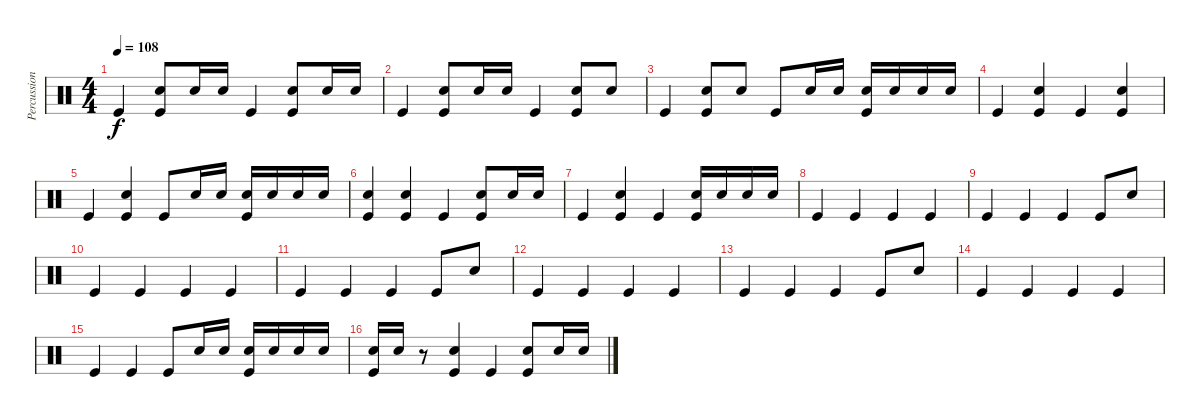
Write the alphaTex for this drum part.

\track ("Percussion" "Percussion") {instrument percussion}
\staff {score}
\articulation defaults
\ts (4 4)
\tempo 108
\clef neutral
\ks c "Kick (hit)".4{dy f}
("Snare (hit) 2" "Kick (hit)").8 "Snare (hit) 2".16 "Snare (hit) 2".16 "Kick (hit)".4 ("Snare (hit) 2" "Kick (hit)").8 "Snare (hit) 2".16 "Snare (hit) 2".16 |
"Kick (hit)".4 ("Snare (hit) 2" "Kick (hit)").8 "Snare (hit) 2".16 "Snare (hit) 2".16 "Kick (hit)".4 ("Snare (hit) 2" "Kick (hit)").8 "Snare (hit) 2".8 |
"Kick (hit)".4 ("Snare (hit) 2" "Kick (hit)").8 "Snare (hit) 2".8 "Kick (hit)".8 "Snare (hit) 2".16 "Snare (hit) 2".16 ("Snare (hit) 2" "Kick (hit)").16 "Snare (hit) 2".16 "Snare (hit) 2".16 "Snare (hit) 2".16 |
"Kick (hit)".4 ("Snare (hit) 2" "Kick (hit)").4 "Kick (hit)".4 ("Snare (hit) 2" "Kick (hit)").4 |
"Kick (hit)".4 ("Snare (hit) 2" "Kick (hit)").4 "Kick (hit)".8 "Snare (hit) 2".16 "Snare (hit) 2".16 ("Snare (hit) 2" "Kick (hit)").16 "Snare (hit) 2".16 "Snare (hit) 2".16 "Snare (hit) 2".16 |
("Snare (hit) 2" "Kick (hit)").4 ("Snare (hit) 2" "Kick (hit)").4 "Kick (hit)".4 ("Snare (hit) 2" "Kick (hit)").8 "Snare (hit) 2".16 "Snare (hit) 2".16 |
"Kick (hit)".4 ("Snare (hit) 2" "Kick (hit)").4 "Kick (hit)".4 ("Snare (hit) 2" "Kick (hit)").16 "Snare (hit) 2".16 "Snare (hit) 2".16 "Snare (hit) 2".16 |
"Kick (hit)".4 "Kick (hit)".4 "Kick (hit)".4 "Kick (hit)".4 |
"Kick (hit)".4 "Kick (hit)".4 "Kick (hit)".4 "Kick (hit)".8 "Snare (hit) 2".8 |
"Kick (hit)".4 "Kick (hit)".4 "Kick (hit)".4 "Kick (hit)".4 |
"Kick (hit)".4 "Kick (hit)".4 "Kick (hit)".4 "Kick (hit)".8 "Snare (hit) 2".8 |
"Kick (hit)".4 "Kick (hit)".4 "Kick (hit)".4 "Kick (hit)".4 |
"Kick (hit)".4 "Kick (hit)".4 "Kick (hit)".4 "Kick (hit)".8 "Snare (hit) 2".8 |
"Kick (hit)".4 "Kick (hit)".4 "Kick (hit)".4 "Kick (hit)".4 |
"Kick (hit)".4 "Kick (hit)".4 "Kick (hit)".8 "Snare (hit) 2".16 "Snare (hit) 2".16 ("Snare (hit) 2" "Kick (hit)").16 "Snare (hit) 2".16 "Snare (hit) 2".16 "Snare (hit) 2".16 |
("Snare (hit) 2" "Kick (hit)").16 "Snare (hit) 2".16 r.8 ("Snare (hit) 2" "Kick (hit)").4 "Kick (hit)".4 ("Snare (hit) 2" "Kick (hit)").8 "Snare (hit) 2".16 "Snare (hit) 2".16
